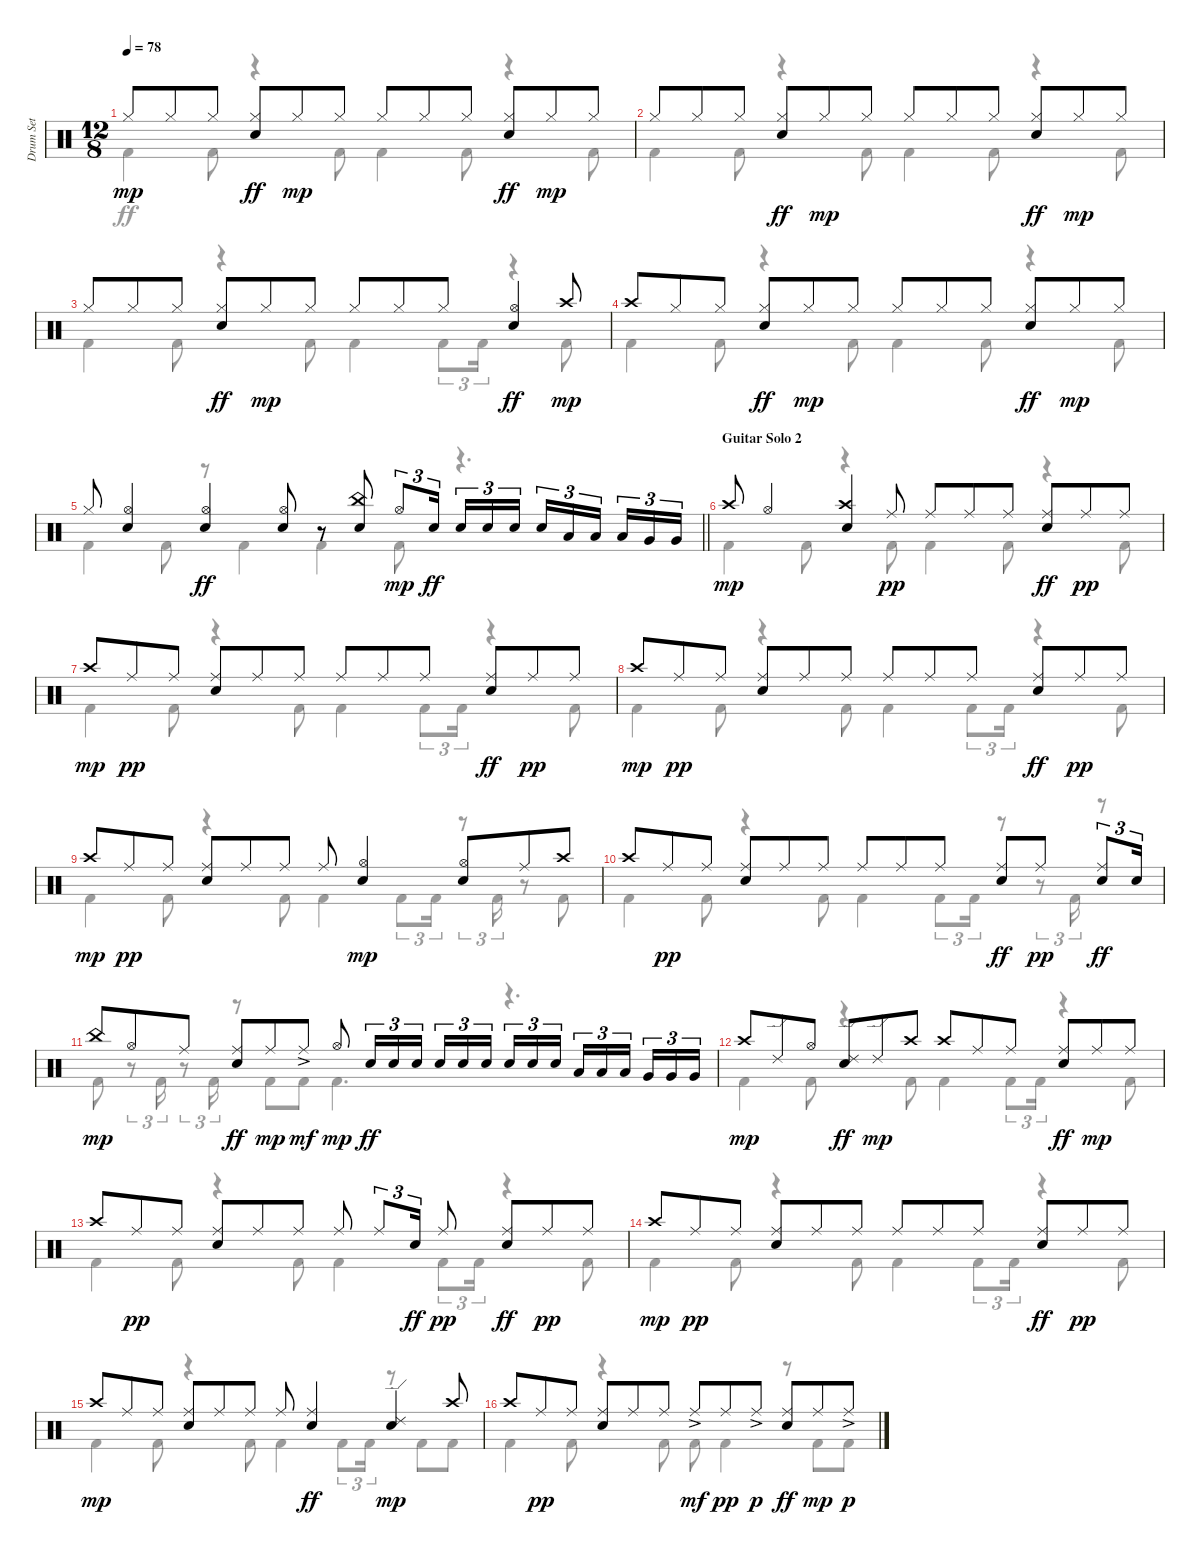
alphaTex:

\track ("Drum Set" "Drum Set") {instrument percussion}
\staff {score}
\articulation defaults
\voice
\ts (12 8)
\tempo 78
\clef neutral
\ks c "Hi-Hat (closed)".8{dy mp} "Hi-Hat (closed)".8 "Hi-Hat (closed)".8
("Hi-Hat (closed)" "Electric Snare (hit)").8{dy ff} "Hi-Hat (closed)".8{dy mp} "Hi-Hat (closed)".8 "Hi-Hat (closed)".8 "Hi-Hat (closed)".8 "Hi-Hat (closed)".8 ("Hi-Hat (closed)" "Electric Snare (hit)").8{dy ff} "Hi-Hat (closed)".8{dy mp} "Hi-Hat (closed)".8 |
"Hi-Hat (closed)".8 "Hi-Hat (closed)".8 "Hi-Hat (closed)".8 ("Hi-Hat (closed)" "Electric Snare (hit)").8{dy ff} "Hi-Hat (closed)".8{dy mp} "Hi-Hat (closed)".8 "Hi-Hat (closed)".8 "Hi-Hat (closed)".8 "Hi-Hat (closed)".8 ("Hi-Hat (closed)" "Electric Snare (hit)").8{dy ff} "Hi-Hat (closed)".8{dy mp} "Hi-Hat (closed)".8 |
"Hi-Hat (closed)".8 "Hi-Hat (closed)".8 "Hi-Hat (closed)".8 ("Hi-Hat (closed)" "Electric Snare (hit)").8{dy ff} "Hi-Hat (closed)".8{dy mp} "Hi-Hat (closed)".8 "Hi-Hat (closed)".8 "Hi-Hat (closed)".8 "Hi-Hat (closed)".8 ("Hi-Hat (open)" "Electric Snare (hit)").4{dy ff} "Crash high (hit)".8{dy mp} |
"Crash high (hit)".8 "Hi-Hat (closed)".8 "Hi-Hat (closed)".8 ("Hi-Hat (closed)" "Electric Snare (hit)").8{dy ff} "Hi-Hat (closed)".8{dy mp} "Hi-Hat (closed)".8 "Hi-Hat (closed)".8 "Hi-Hat (closed)".8 "Hi-Hat (closed)".8 ("Hi-Hat (closed)" "Electric Snare (hit)").8{dy ff} "Hi-Hat (closed)".8{dy mp} "Hi-Hat (closed)".8 |
\barLineRight lightlight "Hi-Hat (closed)".8
("Electric Snare (hit)" "Hi-Hat (open)").4 ("Hi-Hat (open)" "Electric Snare (hit)").4{dy ff} ("Hi-Hat (open)" "Electric Snare (hit)").8 r.8 ("China (hit)" "Electric Snare (hit)").8 "Hi-Hat (open)".8{tu (3 2) dy mp} "Electric Snare (hit)".16{tu (3 2) dy ff} "Electric Snare (hit)".16{tu (3 2)} "Electric Snare (hit)".16{tu (3 2)} "Electric Snare (hit)".16{tu (3 2) beam splitsecondary} "Electric Snare (hit)".16{tu (3 2)} "Low Tom (hit)".16{tu (3 2)} "Low Tom (hit)".16{tu (3 2) beam splitsecondary} "Low Tom (hit)".16{tu (3 2)} "Very Low Tom (hit)".16{tu (3 2)} "Very Low Tom (hit)".16{tu (3 2)} |
\section ("" "Guitar Solo 2")
"Crash high (hit)".8{dy mp} "Hi-Hat (open)".4 ("Electric Snare (hit)" "Crash high (hit)").4 "Ride (middle)".8{dy pp} "Ride (middle)".8 "Ride (middle)".8 "Ride (middle)".8 ("Ride (middle)" "Electric Snare (hit)").8{dy ff} "Ride (middle)".8{dy pp} "Ride (middle)".8 |
"Crash high (hit)".8{dy mp} "Ride (middle)".8{dy pp} "Ride (middle)".8 ("Electric Snare (hit)" "Ride (middle)").8 "Ride (middle)".8 "Ride (middle)".8 "Ride (middle)".8 "Ride (middle)".8 "Ride (middle)".8 ("Ride (middle)" "Electric Snare (hit)").8{dy ff} "Ride (middle)".8{dy pp} "Ride (middle)".8 |
"Crash high (hit)".8{dy mp} "Ride (middle)".8{dy pp} "Ride (middle)".8 ("Electric Snare (hit)" "Ride (middle)").8 "Ride (middle)".8 "Ride (middle)".8 "Ride (middle)".8 "Ride (middle)".8 "Ride (middle)".8 ("Ride (middle)" "Electric Snare (hit)").8{dy ff} "Ride (middle)".8{dy pp} "Ride (middle)".8 |
"Crash high (hit)".8{dy mp} "Ride (middle)".8{dy pp} "Ride (middle)".8 ("Electric Snare (hit)" "Ride (middle)").8 "Ride (middle)".8 "Ride (middle)".8 "Ride (middle)".8 ("Electric Snare (hit)" "Hi-Hat (open)").4{dy mp} ("Electric Snare (hit)" "Hi-Hat (open)").8 "Ride (middle)".8 "Crash high (hit)".8 |
"Crash high (hit)".8 "Ride (middle)".8{dy pp} "Ride (middle)".8 ("Electric Snare (hit)" "Ride (middle)").8 "Ride (middle)".8 "Ride (middle)".8 "Ride (middle)".8 "Ride (middle)".8 "Ride (middle)".8 ("Ride (middle)" "Electric Snare (hit)").8{dy ff} "Ride (middle)".8{dy pp} ("Ride (middle)" "Electric Snare (hit)").8{tu (3 2) dy ff} "Electric Snare (hit)".16{tu (3 2)} |
"China (hit)".8{dy mp} "Hi-Hat (open)".8 "Ride (middle)".8 ("Ride (middle)" "Electric Snare (hit)").8{dy ff} "Ride (middle)".8{dy mp} "Ride (middle)"{ac}.8{dy mf} "Hi-Hat (open)".8{dy mp} "Electric Snare (hit)".16{tu (3 2) dy ff} "Electric Snare (hit)".16{tu (3 2)} "Electric Snare (hit)".16{tu (3 2) beam splitsecondary} "Electric Snare (hit)".16{tu (3 2)} "Electric Snare (hit)".16{tu (3 2)} "Electric Snare (hit)".16{tu (3 2)} "Electric Snare (hit)".16{tu (3 2)} "Electric Snare (hit)".16{tu (3 2)} "Electric Snare (hit)".16{tu (3 2) beam splitsecondary} "Low Tom (hit)".16{tu (3 2)} "Low Tom (hit)".16{tu (3 2)} "Low Tom (hit)".16{tu (3 2) beam splitsecondary} "Very Low Tom (hit)".16{tu (3 2)} "Very Low Tom (hit)".16{tu (3 2)} "Very Low Tom (hit)".16{tu (3 2)} |
"Crash high (hit)".8{dy mp} "Ride (edge) 2".8 "Hi-Hat (open)".8 ("Ride (edge) 2" "Electric Snare (hit)").8{dy ff} "Ride (edge) 2".8{dy mp} "Crash high (hit)".8 "Crash high (hit)".8 "Ride (middle)".8 "Ride (middle)".8 ("Ride (middle)" "Electric Snare (hit)").8{dy ff} "Ride (middle)".8{dy mp} "Ride (middle)".8 |
"Crash high (hit)".8 "Ride (middle)".8{dy pp} "Ride (middle)".8 ("Electric Snare (hit)" "Ride (middle)").8 "Ride (middle)".8 "Ride (middle)".8 "Ride (middle)".8 "Ride (middle)".8{tu (3 2)} "Electric Snare (hit)".16{tu (3 2) dy ff} "Ride (middle)".8{dy pp} ("Ride (middle)" "Electric Snare (hit)").8{dy ff} "Ride (middle)".8{dy pp} "Ride (middle)".8 |
"Crash high (hit)".8{dy mp} "Ride (middle)".8{dy pp} "Ride (middle)".8 ("Electric Snare (hit)" "Ride (middle)").8 "Ride (middle)".8 "Ride (middle)".8 "Ride (middle)".8 "Ride (middle)".8 "Ride (middle)".8 ("Ride (middle)" "Electric Snare (hit)").8{dy ff} "Ride (middle)".8{dy pp} "Ride (middle)".8 |
"Crash high (hit)".8{dy mp} "Ride (middle)".8 "Ride (middle)".8 ("Electric Snare (hit)" "Ride (middle)").8 "Ride (middle)".8 "Ride (middle)".8 "Ride (middle)".8 ("Ride (middle)" "Electric Snare (hit)").4{dy ff} ("Electric Snare (hit)" "Ride (edge) 2").4{dy mp} "Crash high (hit)".8 |
"Crash high (hit)".8 "Ride (middle)".8{dy pp} "Ride (middle)".8 ("Electric Snare (hit)" "Ride (middle)").8 "Ride (middle)".8 "Ride (middle)".8 "Ride (middle)"{ac}.8{dy mf} "Ride (middle)".8{dy pp} "Ride (middle)"{ac}.8{dy p} ("Ride (middle)" "Electric Snare (hit)").8{dy ff} "Ride (middle)".8{dy mp} "Ride (middle)"{ac}.8{dy p}
\voice
\clef neutral
\ottava regular
\simile none
\ks c "Kick (hit) 2".4{dy ff} "Kick (hit) 2".8
r.4 "Kick (hit) 2".8 "Kick (hit) 2".4 "Kick (hit) 2".8 r.4 "Kick (hit) 2".8 |
"Kick (hit) 2".4 "Kick (hit) 2".8 r.4 "Kick (hit) 2".8 "Kick (hit) 2".4 "Kick (hit) 2".8 r.4 "Kick (hit) 2".8 |
"Kick (hit) 2".4 "Kick (hit) 2".8 r.4 "Kick (hit) 2".8 "Kick (hit) 2".4 "Kick (hit) 2".8{tu (3 2)} "Kick (hit) 2".16{tu (3 2)} r.4 "Kick (hit) 2".8 |
"Kick (hit) 2".4 "Kick (hit) 2".8 r.4 "Kick (hit) 2".8 "Kick (hit) 2".4 "Kick (hit) 2".8 r.4 "Kick (hit) 2".8 |
\barLineRight lightlight "Kick (hit) 2".4 "Kick (hit) 2".8
r.8 "Kick (hit) 2".4 "Kick (hit) 2".4 "Kick (hit) 2".8 r.4{d} |
"Kick (hit) 2".4 "Kick (hit) 2".8 r.4 "Kick (hit) 2".8 "Kick (hit) 2".4 "Kick (hit) 2".8 r.4 "Kick (hit) 2".8 |
"Kick (hit) 2".4 "Kick (hit) 2".8 r.4 "Kick (hit) 2".8 "Kick (hit) 2".4 "Kick (hit) 2".8{tu (3 2)} "Kick (hit) 2".16{tu (3 2)} r.4 "Kick (hit) 2".8 |
"Kick (hit) 2".4 "Kick (hit) 2".8 r.4 "Kick (hit) 2".8 "Kick (hit) 2".4 "Kick (hit) 2".8{tu (3 2)} "Kick (hit) 2".16{tu (3 2)} r.4 "Kick (hit) 2".8 |
"Kick (hit) 2".4 "Kick (hit) 2".8 r.4 "Kick (hit) 2".8 "Kick (hit) 2".4 "Kick (hit) 2".8{tu (3 2)} "Kick (hit) 2".16{tu (3 2)} r.8{tu (3 2)} "Kick (hit) 2".16{tu (3 2)} r.8 "Kick (hit) 2".8 |
"Kick (hit) 2".4 "Kick (hit) 2".8 r.4 "Kick (hit) 2".8 "Kick (hit) 2".4 "Kick (hit) 2".8{tu (3 2)} "Kick (hit) 2".16{tu (3 2)} r.8 r.8{tu (3 2)} "Kick (hit) 2".16{tu (3 2)} r.8 |
"Kick (hit) 2".8 r.8{tu (3 2)} "Kick (hit) 2".16{tu (3 2)} r.8{tu (3 2)} "Kick (hit) 2".16{tu (3 2)} r.8 "Kick (hit) 2".8 "Kick (hit) 2".8 "Kick (hit) 2".4{d} r.4{d} |
"Kick (hit) 2".4 "Kick (hit) 2".8 r.4 "Kick (hit) 2".8 "Kick (hit) 2".4 "Kick (hit) 2".8{tu (3 2)} "Kick (hit) 2".16{tu (3 2)} r.4 "Kick (hit) 2".8 |
"Kick (hit) 2".4 "Kick (hit) 2".8 r.4 "Kick (hit) 2".8 "Kick (hit) 2".4 "Kick (hit) 2".8{tu (3 2)} "Kick (hit) 2".16{tu (3 2)} r.4 "Kick (hit) 2".8 |
"Kick (hit) 2".4 "Kick (hit) 2".8 r.4 "Kick (hit) 2".8 "Kick (hit) 2".4 "Kick (hit) 2".8{tu (3 2)} "Kick (hit) 2".16{tu (3 2)} r.4 "Kick (hit) 2".8 |
"Kick (hit) 2".4 "Kick (hit) 2".8 r.4 "Kick (hit) 2".8 "Kick (hit) 2".4 "Kick (hit) 2".8{tu (3 2)} "Kick (hit) 2".16{tu (3 2)} r.8 "Kick (hit) 2".8 "Kick (hit) 2".8 |
"Kick (hit) 2".4 "Kick (hit) 2".8 r.4 "Kick (hit) 2".8 "Kick (hit) 2".8 "Kick (hit) 2".4 r.8 "Kick (hit) 2".8 "Kick (hit) 2".8
